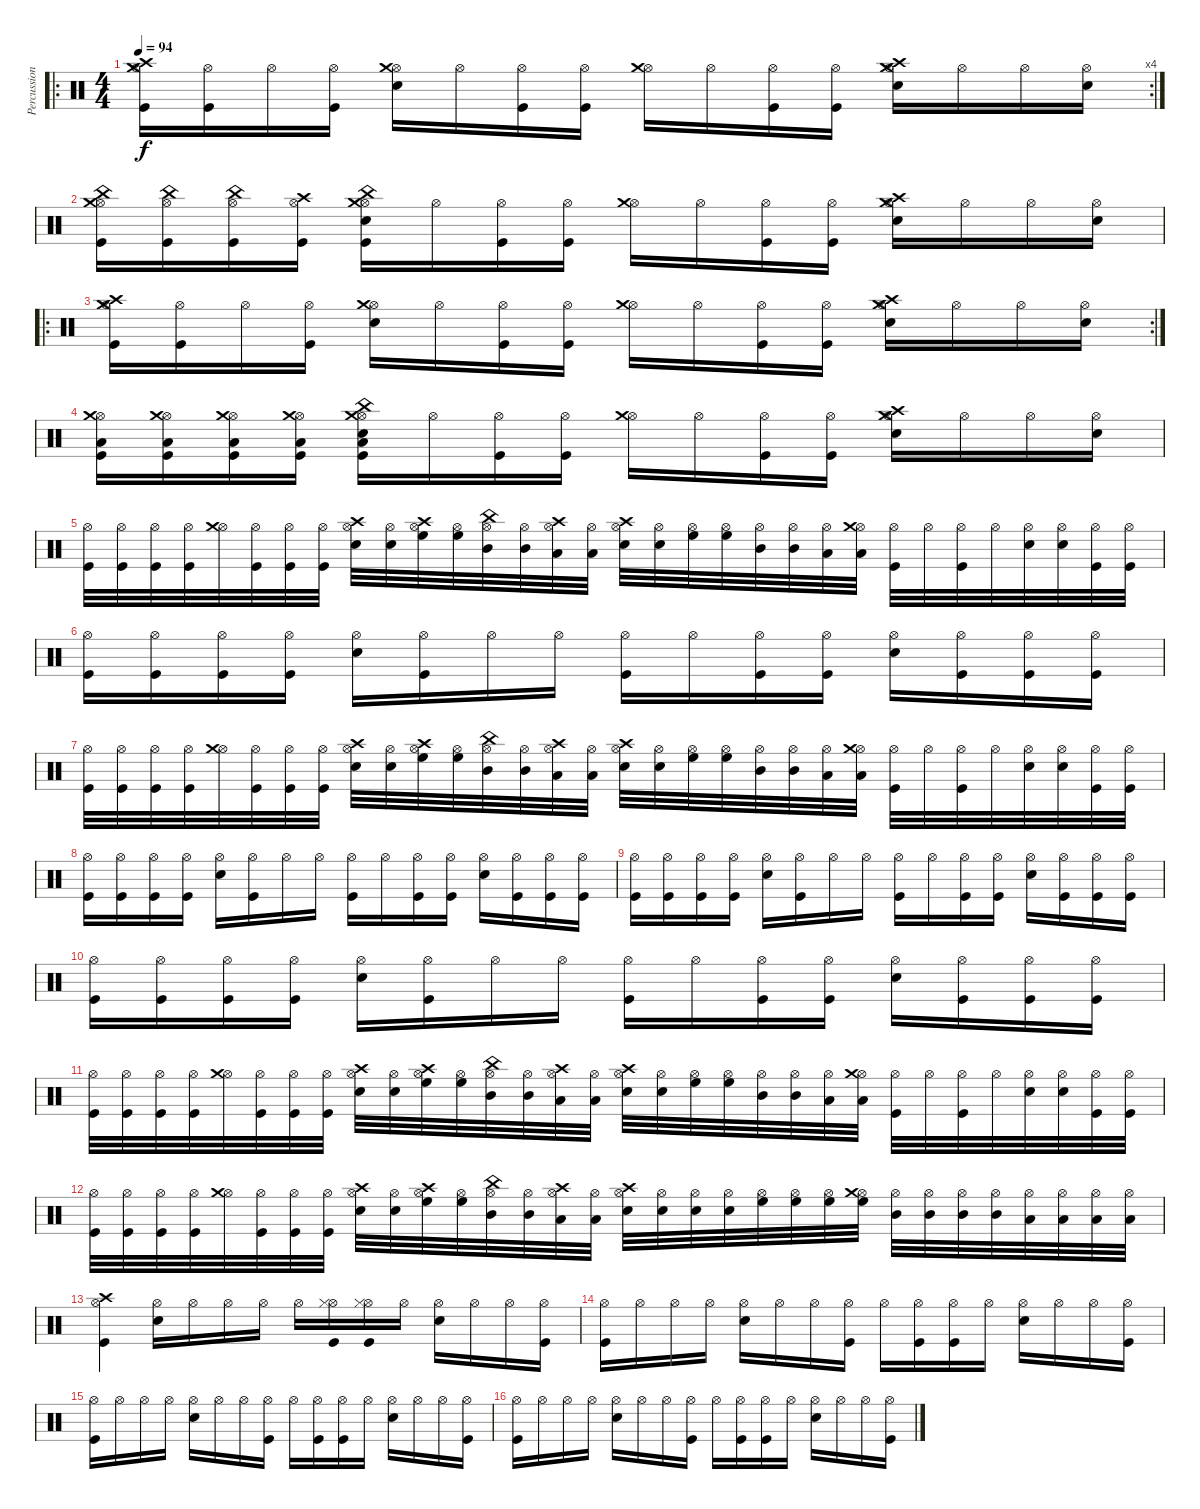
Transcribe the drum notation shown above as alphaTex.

\track ("Percussion" "Percussion") {instrument percussion}
\staff {score}
\articulation defaults
\ro
\rc 4
\ts (4 4)
\tempo 94
\clef neutral
\ks c
("Hi-Hat (open)" "Crash high (hit)" "Kick (hit)" "Crash medium (hit)").16{dy f} ("Hi-Hat (open)" "Kick (hit)").16 "Hi-Hat (open)".16 ("Hi-Hat (open)" "Kick (hit)").16 ("Hi-Hat (open)" "Crash medium (hit)" "Electric Snare (hit)").16 "Hi-Hat (open)".16 ("Hi-Hat (open)" "Kick (hit)").16 ("Hi-Hat (open)" "Kick (hit)").16 ("Hi-Hat (open)" "Crash medium (hit)").16 "Hi-Hat (open)".16 ("Hi-Hat (open)" "Kick (hit)").16 ("Hi-Hat (open)" "Kick (hit)").16 ("Hi-Hat (open)" "Crash high (hit)" "Electric Snare (hit)" "Crash medium (hit)").16 "Hi-Hat (open)".16 "Hi-Hat (open)".16 ("Hi-Hat (open)" "Electric Snare (hit)").16 |
("Hi-Hat (open)" "China (hit)" "Kick (hit)" "Crash medium (hit)").16 ("Hi-Hat (open)" "China (hit)" "Kick (hit)").16 ("Hi-Hat (open)" "China (hit)" "Kick (hit)").16 ("Hi-Hat (open)" "Crash high (hit)" "Kick (hit)").16 ("Hi-Hat (open)" "China (hit)" "Kick (hit)" "Electric Snare (hit)" "Crash medium (hit)").16 "Hi-Hat (open)".16 ("Hi-Hat (open)" "Kick (hit)").16 ("Hi-Hat (open)" "Kick (hit)").16 ("Hi-Hat (open)" "Crash medium (hit)").16 "Hi-Hat (open)".16 ("Hi-Hat (open)" "Kick (hit)").16 ("Hi-Hat (open)" "Kick (hit)").16 ("Hi-Hat (open)" "Crash high (hit)" "Electric Snare (hit)" "Crash medium (hit)").16 "Hi-Hat (open)".16 "Hi-Hat (open)".16 ("Hi-Hat (open)" "Electric Snare (hit)").16 |
\ro
\rc 2
("Hi-Hat (open)" "Crash high (hit)" "Kick (hit)" "Crash medium (hit)").16 ("Hi-Hat (open)" "Kick (hit)").16 "Hi-Hat (open)".16 ("Hi-Hat (open)" "Kick (hit)").16 ("Hi-Hat (open)" "Crash medium (hit)" "Electric Snare (hit)").16 "Hi-Hat (open)".16 ("Hi-Hat (open)" "Kick (hit)").16 ("Hi-Hat (open)" "Kick (hit)").16 ("Hi-Hat (open)" "Crash medium (hit)").16 "Hi-Hat (open)".16 ("Hi-Hat (open)" "Kick (hit)").16 ("Hi-Hat (open)" "Kick (hit)").16 ("Hi-Hat (open)" "Crash high (hit)" "Electric Snare (hit)" "Crash medium (hit)").16 "Hi-Hat (open)".16 "Hi-Hat (open)".16 ("Hi-Hat (open)" "Electric Snare (hit)").16 |
("Hi-Hat (open)" "Low Floor Tom (hit)" "Kick (hit)" "Crash medium (hit)").16 ("Hi-Hat (open)" "Low Floor Tom (hit)" "Kick (hit)" "Crash medium (hit)").16 ("Hi-Hat (open)" "Low Floor Tom (hit)" "Kick (hit)" "Crash medium (hit)").16 ("Hi-Hat (open)" "Low Floor Tom (hit)" "Kick (hit)" "Crash medium (hit)").16 ("Hi-Hat (open)" "China (hit)" "Kick (hit)" "Electric Snare (hit)" "Crash medium (hit)" "Low Floor Tom (hit)").16 "Hi-Hat (open)".16 ("Hi-Hat (open)" "Kick (hit)").16 ("Hi-Hat (open)" "Kick (hit)").16 ("Hi-Hat (open)" "Crash medium (hit)").16 "Hi-Hat (open)".16 ("Hi-Hat (open)" "Kick (hit)").16 ("Hi-Hat (open)" "Kick (hit)").16 ("Hi-Hat (open)" "Crash high (hit)" "Electric Snare (hit)" "Crash medium (hit)").16 "Hi-Hat (open)".16 "Hi-Hat (open)".16 ("Hi-Hat (open)" "Electric Snare (hit)").16 |
("Hi-Hat (open)" "Kick (hit)").32 ("Hi-Hat (open)" "Kick (hit)").32 ("Hi-Hat (open)" "Kick (hit)").32 ("Hi-Hat (open)" "Kick (hit)").32 ("Hi-Hat (open)" "Crash medium (hit)").32 ("Hi-Hat (open)" "Kick (hit)").32 ("Hi-Hat (open)" "Kick (hit)").32 ("Hi-Hat (open)" "Kick (hit)").32 ("Hi-Hat (open)" "Electric Snare (hit)" "Crash high (hit)").32 ("Hi-Hat (open)" "Electric Snare (hit)").32 ("Hi-Hat (open)" "High Floor Tom (hit)" "Crash high (hit)").32 ("Hi-Hat (open)" "High Floor Tom (hit)").32 ("Hi-Hat (open)" "Mid Tom (hit)" "China (hit)").32 ("Hi-Hat (open)" "Mid Tom (hit)").32 ("Hi-Hat (open)" "Low Floor Tom (hit)" "Crash high (hit)").32 ("Hi-Hat (open)" "Low Floor Tom (hit)").32 ("Hi-Hat (open)" "Electric Snare (hit)" "Crash high (hit)").32 ("Hi-Hat (open)" "Electric Snare (hit)").32 ("Hi-Hat (open)" "High Floor Tom (hit)").32 ("Hi-Hat (open)" "High Floor Tom (hit)").32 ("Hi-Hat (open)" "Mid Tom (hit)").32 ("Hi-Hat (open)" "Mid Tom (hit)").32 ("Hi-Hat (open)" "Low Floor Tom (hit)").32 ("Hi-Hat (open)" "Low Floor Tom (hit)" "Crash medium (hit)").32 ("Hi-Hat (open)" "Kick (hit)").32 "Hi-Hat (open)".32 ("Hi-Hat (open)" "Kick (hit)").32 "Hi-Hat (open)".32 ("Hi-Hat (open)" "Electric Snare (hit)").32 ("Hi-Hat (open)" "Electric Snare (hit)").32 ("Hi-Hat (open)" "Kick (hit)").32 ("Hi-Hat (open)" "Kick (hit)").32 |
("Hi-Hat (open)" "Kick (hit)").16 ("Hi-Hat (open)" "Kick (hit)").16 ("Hi-Hat (open)" "Kick (hit)").16 ("Hi-Hat (open)" "Kick (hit)").16 ("Hi-Hat (open)" "Electric Snare (hit)").16 ("Hi-Hat (open)" "Kick (hit)").16 "Hi-Hat (open)".16 "Hi-Hat (open)".16 ("Hi-Hat (open)" "Kick (hit)").16 "Hi-Hat (open)".16 ("Hi-Hat (open)" "Kick (hit)").16 ("Hi-Hat (open)" "Kick (hit)").16 ("Hi-Hat (open)" "Electric Snare (hit)").16 ("Hi-Hat (open)" "Kick (hit)").16 ("Hi-Hat (open)" "Kick (hit)").16 ("Hi-Hat (open)" "Kick (hit)").16 |
("Hi-Hat (open)" "Kick (hit)").32 ("Hi-Hat (open)" "Kick (hit)").32 ("Hi-Hat (open)" "Kick (hit)").32 ("Hi-Hat (open)" "Kick (hit)").32 ("Hi-Hat (open)" "Crash medium (hit)").32 ("Hi-Hat (open)" "Kick (hit)").32 ("Hi-Hat (open)" "Kick (hit)").32 ("Hi-Hat (open)" "Kick (hit)").32 ("Hi-Hat (open)" "Electric Snare (hit)" "Crash high (hit)").32 ("Hi-Hat (open)" "Electric Snare (hit)").32 ("Hi-Hat (open)" "High Floor Tom (hit)" "Crash high (hit)").32 ("Hi-Hat (open)" "High Floor Tom (hit)").32 ("Hi-Hat (open)" "Mid Tom (hit)" "China (hit)").32 ("Hi-Hat (open)" "Mid Tom (hit)").32 ("Hi-Hat (open)" "Low Floor Tom (hit)" "Crash high (hit)").32 ("Hi-Hat (open)" "Low Floor Tom (hit)").32 ("Hi-Hat (open)" "Electric Snare (hit)" "Crash high (hit)").32 ("Hi-Hat (open)" "Electric Snare (hit)").32 ("Hi-Hat (open)" "High Floor Tom (hit)").32 ("Hi-Hat (open)" "High Floor Tom (hit)").32 ("Hi-Hat (open)" "Mid Tom (hit)").32 ("Hi-Hat (open)" "Mid Tom (hit)").32 ("Hi-Hat (open)" "Low Floor Tom (hit)").32 ("Hi-Hat (open)" "Low Floor Tom (hit)" "Crash medium (hit)").32 ("Hi-Hat (open)" "Kick (hit)").32 "Hi-Hat (open)".32 ("Hi-Hat (open)" "Kick (hit)").32 "Hi-Hat (open)".32 ("Hi-Hat (open)" "Electric Snare (hit)").32 ("Hi-Hat (open)" "Electric Snare (hit)").32 ("Hi-Hat (open)" "Kick (hit)").32 ("Hi-Hat (open)" "Kick (hit)").32 |
("Hi-Hat (open)" "Kick (hit)").16 ("Hi-Hat (open)" "Kick (hit)").16 ("Hi-Hat (open)" "Kick (hit)").16 ("Hi-Hat (open)" "Kick (hit)").16 ("Hi-Hat (open)" "Electric Snare (hit)").16 ("Hi-Hat (open)" "Kick (hit)").16 "Hi-Hat (open)".16 "Hi-Hat (open)".16 ("Hi-Hat (open)" "Kick (hit)").16 "Hi-Hat (open)".16 ("Hi-Hat (open)" "Kick (hit)").16 ("Hi-Hat (open)" "Kick (hit)").16 ("Hi-Hat (open)" "Electric Snare (hit)").16 ("Hi-Hat (open)" "Kick (hit)").16 ("Hi-Hat (open)" "Kick (hit)").16 ("Hi-Hat (open)" "Kick (hit)").16 |
("Hi-Hat (open)" "Kick (hit)").16 ("Hi-Hat (open)" "Kick (hit)").16 ("Hi-Hat (open)" "Kick (hit)").16 ("Hi-Hat (open)" "Kick (hit)").16 ("Hi-Hat (open)" "Electric Snare (hit)").16 ("Hi-Hat (open)" "Kick (hit)").16 "Hi-Hat (open)".16 "Hi-Hat (open)".16 ("Hi-Hat (open)" "Kick (hit)").16 "Hi-Hat (open)".16 ("Hi-Hat (open)" "Kick (hit)").16 ("Hi-Hat (open)" "Kick (hit)").16 ("Hi-Hat (open)" "Electric Snare (hit)").16 ("Hi-Hat (open)" "Kick (hit)").16 ("Hi-Hat (open)" "Kick (hit)").16 ("Hi-Hat (open)" "Kick (hit)").16 |
("Hi-Hat (open)" "Kick (hit)").16 ("Hi-Hat (open)" "Kick (hit)").16 ("Hi-Hat (open)" "Kick (hit)").16 ("Hi-Hat (open)" "Kick (hit)").16 ("Hi-Hat (open)" "Electric Snare (hit)").16 ("Hi-Hat (open)" "Kick (hit)").16 "Hi-Hat (open)".16 "Hi-Hat (open)".16 ("Hi-Hat (open)" "Kick (hit)").16 "Hi-Hat (open)".16 ("Hi-Hat (open)" "Kick (hit)").16 ("Hi-Hat (open)" "Kick (hit)").16 ("Hi-Hat (open)" "Electric Snare (hit)").16 ("Hi-Hat (open)" "Kick (hit)").16 ("Hi-Hat (open)" "Kick (hit)").16 ("Hi-Hat (open)" "Kick (hit)").16 |
("Hi-Hat (open)" "Kick (hit)").32 ("Hi-Hat (open)" "Kick (hit)").32 ("Hi-Hat (open)" "Kick (hit)").32 ("Hi-Hat (open)" "Kick (hit)").32 ("Hi-Hat (open)" "Crash medium (hit)").32 ("Hi-Hat (open)" "Kick (hit)").32 ("Hi-Hat (open)" "Kick (hit)").32 ("Hi-Hat (open)" "Kick (hit)").32 ("Hi-Hat (open)" "Electric Snare (hit)" "Crash high (hit)").32 ("Hi-Hat (open)" "Electric Snare (hit)").32 ("Hi-Hat (open)" "High Floor Tom (hit)" "Crash high (hit)").32 ("Hi-Hat (open)" "High Floor Tom (hit)").32 ("Hi-Hat (open)" "Mid Tom (hit)" "China (hit)").32 ("Hi-Hat (open)" "Mid Tom (hit)").32 ("Hi-Hat (open)" "Low Floor Tom (hit)" "Crash high (hit)").32 ("Hi-Hat (open)" "Low Floor Tom (hit)").32 ("Hi-Hat (open)" "Electric Snare (hit)" "Crash high (hit)").32 ("Hi-Hat (open)" "Electric Snare (hit)").32 ("Hi-Hat (open)" "High Floor Tom (hit)").32 ("Hi-Hat (open)" "High Floor Tom (hit)").32 ("Hi-Hat (open)" "Mid Tom (hit)").32 ("Hi-Hat (open)" "Mid Tom (hit)").32 ("Hi-Hat (open)" "Low Floor Tom (hit)").32 ("Hi-Hat (open)" "Low Floor Tom (hit)" "Crash medium (hit)").32 ("Hi-Hat (open)" "Kick (hit)").32 "Hi-Hat (open)".32 ("Hi-Hat (open)" "Kick (hit)").32 "Hi-Hat (open)".32 ("Hi-Hat (open)" "Electric Snare (hit)").32 ("Hi-Hat (open)" "Electric Snare (hit)").32 ("Hi-Hat (open)" "Kick (hit)").32 ("Hi-Hat (open)" "Kick (hit)").32 |
("Hi-Hat (open)" "Kick (hit)").32 ("Hi-Hat (open)" "Kick (hit)").32 ("Hi-Hat (open)" "Kick (hit)").32 ("Hi-Hat (open)" "Kick (hit)").32 ("Hi-Hat (open)" "Crash medium (hit)").32 ("Hi-Hat (open)" "Kick (hit)").32 ("Hi-Hat (open)" "Kick (hit)").32 ("Hi-Hat (open)" "Kick (hit)").32 ("Hi-Hat (open)" "Electric Snare (hit)" "Crash high (hit)").32 ("Hi-Hat (open)" "Electric Snare (hit)").32 ("Hi-Hat (open)" "High Floor Tom (hit)" "Crash high (hit)").32 ("Hi-Hat (open)" "High Floor Tom (hit)").32 ("Hi-Hat (open)" "Mid Tom (hit)" "China (hit)").32 ("Hi-Hat (open)" "Mid Tom (hit)").32 ("Hi-Hat (open)" "Low Floor Tom (hit)" "Crash high (hit)").32 ("Hi-Hat (open)" "Low Floor Tom (hit)").32 ("Hi-Hat (open)" "Electric Snare (hit)" "Crash high (hit)").32 ("Hi-Hat (open)" "Electric Snare (hit)").32 ("Hi-Hat (open)" "Electric Snare (hit)").32 ("Hi-Hat (open)" "Electric Snare (hit)").32 ("Hi-Hat (open)" "High Floor Tom (hit)").32 ("Hi-Hat (open)" "High Floor Tom (hit)").32 ("Hi-Hat (open)" "High Floor Tom (hit)").32 ("Hi-Hat (open)" "High Floor Tom (hit)" "Crash medium (hit)").32 ("Hi-Hat (open)" "Mid Tom (hit)").32 ("Hi-Hat (open)" "Mid Tom (hit)").32 ("Hi-Hat (open)" "Mid Tom (hit)").32 ("Hi-Hat (open)" "Mid Tom (hit)").32 ("Hi-Hat (open)" "Low Floor Tom (hit)").32 ("Hi-Hat (open)" "Low Floor Tom (hit)").32 ("Hi-Hat (open)" "Low Floor Tom (hit)").32 ("Hi-Hat (open)" "Low Floor Tom (hit)").32 |
("Hi-Hat (open)" "Crash high (hit)" "Kick (hit)").4 ("Hi-Hat (open)" "Electric Snare (hit)").16 "Hi-Hat (open)".16 "Hi-Hat (open)".16 "Hi-Hat (open)".16 "Hi-Hat (open)".16 ("Hi-Hat (open)" "Kick (hit)" "Hi-Hat (closed)").16 ("Hi-Hat (open)" "Kick (hit)" "Hi-Hat (closed)").16 "Hi-Hat (open)".16 ("Hi-Hat (open)" "Electric Snare (hit)").16 "Hi-Hat (open)".16 "Hi-Hat (open)".16 ("Hi-Hat (open)" "Kick (hit)").16 |
("Hi-Hat (open)" "Kick (hit)").16 "Hi-Hat (open)".16 "Hi-Hat (open)".16 "Hi-Hat (open)".16 ("Hi-Hat (open)" "Electric Snare (hit)").16 "Hi-Hat (open)".16 "Hi-Hat (open)".16 ("Hi-Hat (open)" "Kick (hit)").16 "Hi-Hat (open)".16 ("Hi-Hat (open)" "Kick (hit)").16 ("Hi-Hat (open)" "Kick (hit)").16 "Hi-Hat (open)".16 ("Hi-Hat (open)" "Electric Snare (hit)").16 "Hi-Hat (open)".16 "Hi-Hat (open)".16 ("Hi-Hat (open)" "Kick (hit)").16 |
("Hi-Hat (open)" "Kick (hit)").16 "Hi-Hat (open)".16 "Hi-Hat (open)".16 "Hi-Hat (open)".16 ("Hi-Hat (open)" "Electric Snare (hit)").16 "Hi-Hat (open)".16 "Hi-Hat (open)".16 ("Hi-Hat (open)" "Kick (hit)").16 "Hi-Hat (open)".16 ("Hi-Hat (open)" "Kick (hit)").16 ("Hi-Hat (open)" "Kick (hit)").16 "Hi-Hat (open)".16 ("Hi-Hat (open)" "Electric Snare (hit)").16 "Hi-Hat (open)".16 "Hi-Hat (open)".16 ("Hi-Hat (open)" "Kick (hit)").16 |
("Hi-Hat (open)" "Kick (hit)").16 "Hi-Hat (open)".16 "Hi-Hat (open)".16 "Hi-Hat (open)".16 ("Hi-Hat (open)" "Electric Snare (hit)").16 "Hi-Hat (open)".16 "Hi-Hat (open)".16 ("Hi-Hat (open)" "Kick (hit)").16 "Hi-Hat (open)".16 ("Hi-Hat (open)" "Kick (hit)").16 ("Hi-Hat (open)" "Kick (hit)").16 "Hi-Hat (open)".16 ("Hi-Hat (open)" "Electric Snare (hit)").16 "Hi-Hat (open)".16 "Hi-Hat (open)".16 ("Hi-Hat (open)" "Kick (hit)").16
